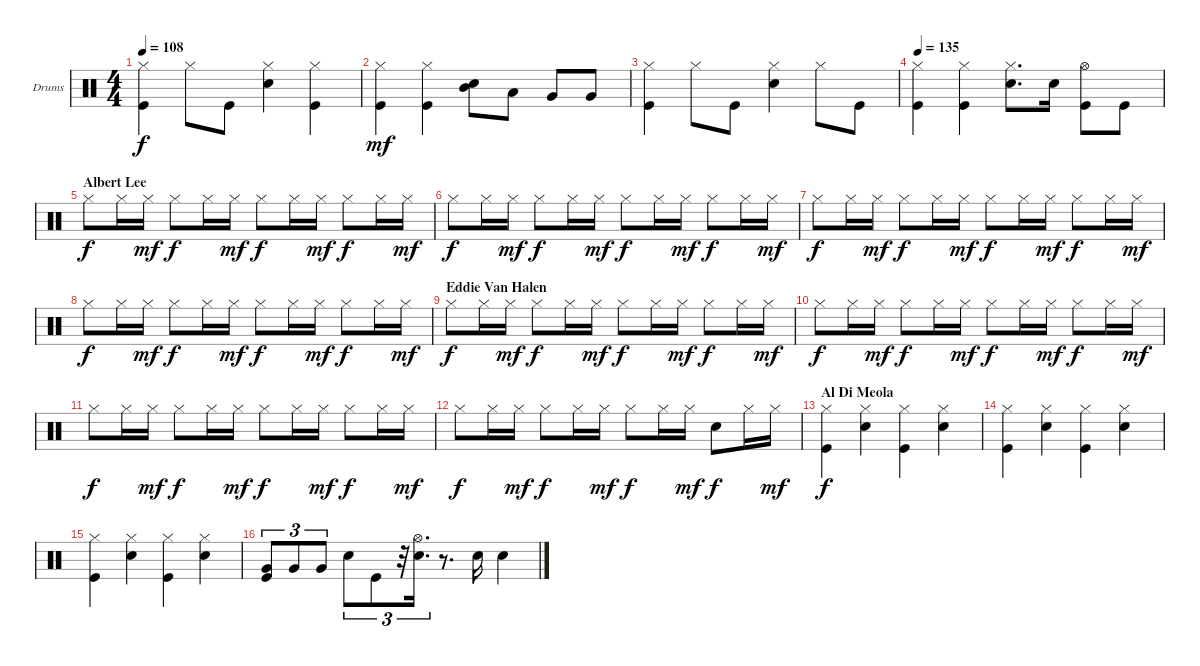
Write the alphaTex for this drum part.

\defaultSystemsLayout 4
\bracketExtendMode groupsimilarinstruments
\firstSystemTrackNameOrientation horizontal
\otherSystemsTrackNameOrientation horizontal
\track ("Drumkit" "Drums") {instrument percussion}
\staff {score}
\articulation defaults
\ts (4 4)
\tempo 108
\clef neutral
\ks c
("Hi-Hat (closed)" "Kick (hit)").4{dy f} "Hi-Hat (closed)".8 "Kick (hit)".8 ("Hi-Hat (closed)" "Snare (hit) 2").4 ("Hi-Hat (closed)" "Kick (hit)").4 |
("Hi-Hat (closed)" "Kick (hit)").4{dy mf} ("Hi-Hat (closed)" "Kick (hit)").4 ("Mid Tom (hit)" "Snare (hit) 2").8 "Low Tom (hit)".8 "Very Low Tom (hit)".8 "Very Low Tom (hit)".8 |
("Hi-Hat (closed)" "Kick (hit)").4 "Hi-Hat (closed)".8 "Kick (hit)".8 ("Hi-Hat (closed)" "Snare (hit) 2").4 "Hi-Hat (closed)".8 "Kick (hit)".8 |
\tempo (135 0.00625)
("Hi-Hat (closed)" "Kick (hit)").4 ("Hi-Hat (closed)" "Kick (hit)").4 ("Hi-Hat (closed)" "Snare (hit) 2").8{d} "Snare (hit) 2".16 ("Hi-Hat (open)" "Kick (hit)").8 "Kick (hit)".8 |
\section ("" "Albert Lee")
"Hi-Hat (closed)".8{dy f} "Hi-Hat (closed)".16 "Hi-Hat (closed)".16{dy mf} "Hi-Hat (closed)".8{dy f} "Hi-Hat (closed)".16 "Hi-Hat (closed)".16{dy mf} "Hi-Hat (closed)".8{dy f} "Hi-Hat (closed)".16 "Hi-Hat (closed)".16{dy mf} "Hi-Hat (closed)".8{dy f} "Hi-Hat (closed)".16 "Hi-Hat (closed)".16{dy mf} |
"Hi-Hat (closed)".8{dy f} "Hi-Hat (closed)".16 "Hi-Hat (closed)".16{dy mf} "Hi-Hat (closed)".8{dy f} "Hi-Hat (closed)".16 "Hi-Hat (closed)".16{dy mf} "Hi-Hat (closed)".8{dy f} "Hi-Hat (closed)".16 "Hi-Hat (closed)".16{dy mf} "Hi-Hat (closed)".8{dy f} "Hi-Hat (closed)".16 "Hi-Hat (closed)".16{dy mf} |
"Hi-Hat (closed)".8{dy f} "Hi-Hat (closed)".16 "Hi-Hat (closed)".16{dy mf} "Hi-Hat (closed)".8{dy f} "Hi-Hat (closed)".16 "Hi-Hat (closed)".16{dy mf} "Hi-Hat (closed)".8{dy f} "Hi-Hat (closed)".16 "Hi-Hat (closed)".16{dy mf} "Hi-Hat (closed)".8{dy f} "Hi-Hat (closed)".16 "Hi-Hat (closed)".16{dy mf} |
"Hi-Hat (closed)".8{dy f} "Hi-Hat (closed)".16 "Hi-Hat (closed)".16{dy mf} "Hi-Hat (closed)".8{dy f} "Hi-Hat (closed)".16 "Hi-Hat (closed)".16{dy mf} "Hi-Hat (closed)".8{dy f} "Hi-Hat (closed)".16 "Hi-Hat (closed)".16{dy mf} "Hi-Hat (closed)".8{dy f} "Hi-Hat (closed)".16 "Hi-Hat (closed)".16{dy mf} |
\section ("" "Eddie Van Halen")
"Hi-Hat (closed)".8{dy f} "Hi-Hat (closed)".16 "Hi-Hat (closed)".16{dy mf} "Hi-Hat (closed)".8{dy f} "Hi-Hat (closed)".16 "Hi-Hat (closed)".16{dy mf} "Hi-Hat (closed)".8{dy f} "Hi-Hat (closed)".16 "Hi-Hat (closed)".16{dy mf} "Hi-Hat (closed)".8{dy f} "Hi-Hat (closed)".16 "Hi-Hat (closed)".16{dy mf} |
"Hi-Hat (closed)".8{dy f} "Hi-Hat (closed)".16 "Hi-Hat (closed)".16{dy mf} "Hi-Hat (closed)".8{dy f} "Hi-Hat (closed)".16 "Hi-Hat (closed)".16{dy mf} "Hi-Hat (closed)".8{dy f} "Hi-Hat (closed)".16 "Hi-Hat (closed)".16{dy mf} "Hi-Hat (closed)".8{dy f} "Hi-Hat (closed)".16 "Hi-Hat (closed)".16{dy mf} |
"Hi-Hat (closed)".8{dy f} "Hi-Hat (closed)".16 "Hi-Hat (closed)".16{dy mf} "Hi-Hat (closed)".8{dy f} "Hi-Hat (closed)".16 "Hi-Hat (closed)".16{dy mf} "Hi-Hat (closed)".8{dy f} "Hi-Hat (closed)".16 "Hi-Hat (closed)".16{dy mf} "Hi-Hat (closed)".8{dy f} "Hi-Hat (closed)".16 "Hi-Hat (closed)".16{dy mf} |
"Hi-Hat (closed)".8{dy f} "Hi-Hat (closed)".16 "Hi-Hat (closed)".16{dy mf} "Hi-Hat (closed)".8{dy f} "Hi-Hat (closed)".16 "Hi-Hat (closed)".16{dy mf} "Hi-Hat (closed)".8{dy f} "Hi-Hat (closed)".16 "Hi-Hat (closed)".16{dy mf} "Snare (hit) 2".8{dy f} "Hi-Hat (closed)".16 "Hi-Hat (closed)".16{dy mf} |
\section ("" "Al Di Meola")
("Hi-Hat (closed)" "Kick (hit)").4{dy f} ("Hi-Hat (closed)" "Snare (hit) 2").4 ("Hi-Hat (closed)" "Kick (hit)").4 ("Hi-Hat (closed)" "Snare (hit) 2").4 |
("Hi-Hat (closed)" "Kick (hit)").4 ("Hi-Hat (closed)" "Snare (hit) 2").4 ("Hi-Hat (closed)" "Kick (hit)").4 ("Hi-Hat (closed)" "Snare (hit) 2").4 |
("Hi-Hat (closed)" "Kick (hit)").4 ("Hi-Hat (closed)" "Snare (hit) 2").4 ("Hi-Hat (closed)" "Kick (hit)").4 ("Hi-Hat (closed)" "Snare (hit) 2").4 |
("Very Low Tom (hit)" "Kick (hit)").8{tu (3 2)} "Very Low Tom (hit)".8{tu (3 2)} "Very Low Tom (hit)".8{tu (3 2)} "Snare (hit) 2".8{tu (3 2)} "Kick (hit)".8{tu (3 2)} r.32{tu (3 2)} ("Hi-Hat (open)" "Snare (hit) 2").16{d tu (3 2)} r.8{d} "Snare (hit) 2".16 "Snare (hit) 2".4
